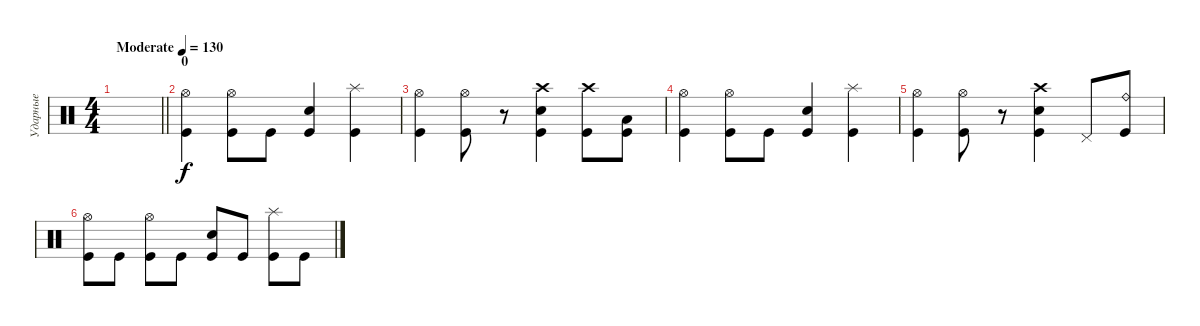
\track ("Ударные" "Ударные") {instrument percussion}
\staff {score}
\articulation defaults
\ts (4 4)
\tempo (130 "Moderate")
\clef neutral
\barLineRight lightlight
\ks c
|
\section ("" "0")
("Hi-Hat (open)" "Kick (hit)").4 ("Hi-Hat (open)" "Kick (hit)").8 "Kick (hit)".8 ("Electric Snare (hit)" "Kick (hit)").4 ("Splash (hit)" "Kick (hit)").4 |
("Hi-Hat (open)" "Kick (hit)").4 ("Hi-Hat (open)" "Kick (hit)").8 r.8 ("Crash high (hit)" "Electric Snare (hit)" "Kick (hit)").4 ("Crash high (hit)" "Kick (hit)").8 ("Low Floor Tom (hit)" "Kick (hit)").8 |
("Hi-Hat (open)" "Kick (hit)").4 ("Hi-Hat (open)" "Kick (hit)").8 "Kick (hit)".8 ("Electric Snare (hit)" "Kick (hit)").4 ("Splash (hit)" "Kick (hit)").4 |
("Hi-Hat (open)" "Kick (hit)").4 ("Hi-Hat (open)" "Kick (hit)").8 r.8 ("Crash high (hit)" "Electric Snare (hit)" "Kick (hit)").4 "Pedal Hi-Hat (hit)".8 ("Ride (bell)" "Kick (hit)").8 |
("Hi-Hat (open)" "Kick (hit)").8 "Kick (hit)".8 ("Hi-Hat (open)" "Kick (hit)").8 "Kick (hit)".8 ("Electric Snare (hit)" "Kick (hit)").8 "Kick (hit)".8 ("Splash (hit)" "Kick (hit)").8 "Kick (hit)".8
